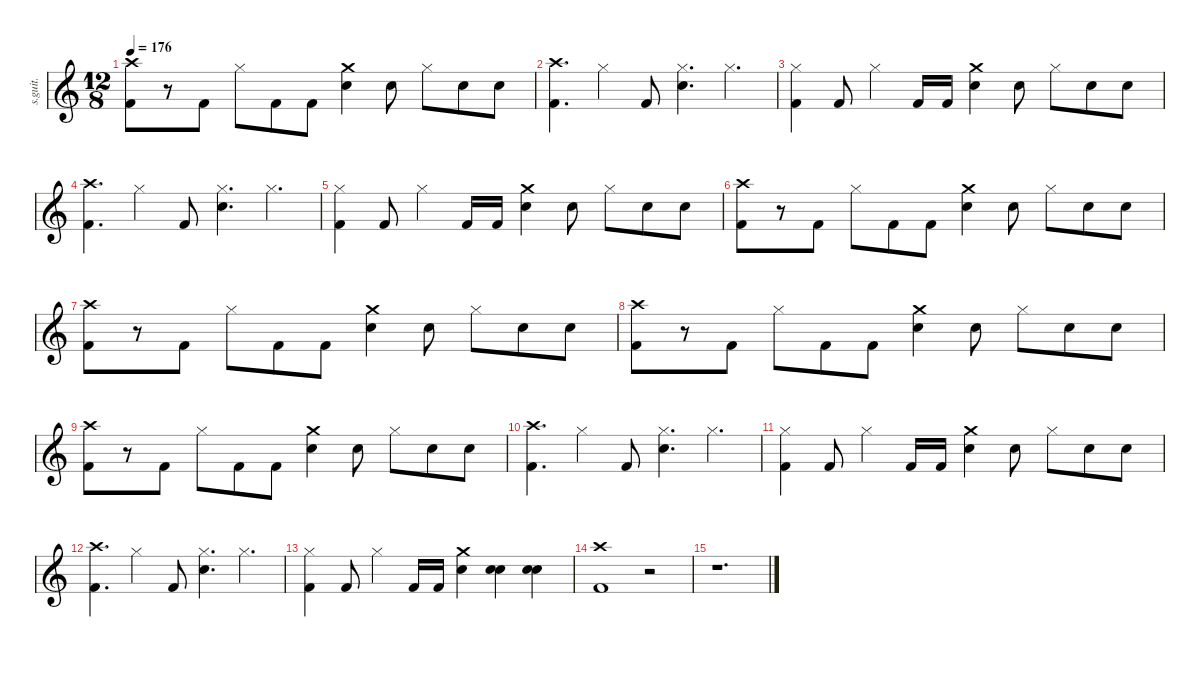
\defaultSystemsLayout 4
\hideDynamics
\bracketExtendMode nobrackets
\track ("Vinnie Paul" "s.guit.") {instrument percussion}
\staff {score}
\articulation defaults
\ts (12 8)
\tempo 176
\clef g2
\ks c
("Crash high (hit)" "Kick (hit) 2").8{lyrics (0 "") lyrics (1 "") lyrics (2 "") lyrics (3 "") lyrics (4 "") dy f} r.8 "Kick (hit) 2".8{lyrics (0 "") lyrics (1 "") lyrics (2 "") lyrics (3 "") lyrics (4 "")} "Hi-Hat (closed)".8{lyrics (0 "") lyrics (1 "") lyrics (2 "") lyrics (3 "") lyrics (4 "")} "Kick (hit) 2".8{lyrics (0 "") lyrics (1 "") lyrics (2 "") lyrics (3 "") lyrics (4 "")} "Kick (hit) 2".8{lyrics (0 "") lyrics (1 "") lyrics (2 "") lyrics (3 "") lyrics (4 "")} ("Crash medium (hit)" "Snare (hit) 2").4{lyrics (0 "") lyrics (1 "") lyrics (2 "") lyrics (3 "") lyrics (4 "")} "Snare (hit) 2".8{lyrics (0 "") lyrics (1 "") lyrics (2 "") lyrics (3 "") lyrics (4 "")} "Hi-Hat (closed)".8{lyrics (0 "") lyrics (1 "") lyrics (2 "") lyrics (3 "") lyrics (4 "")} "Snare (hit) 2".8{lyrics (0 "") lyrics (1 "") lyrics (2 "") lyrics (3 "") lyrics (4 "")} "Snare (hit) 2".8{lyrics (0 "") lyrics (1 "") lyrics (2 "") lyrics (3 "") lyrics (4 "")} |
("Crash high (hit)" "Kick (hit) 2").4{d lyrics (0 "") lyrics (1 "") lyrics (2 "") lyrics (3 "") lyrics (4 "")} "Hi-Hat (closed)".4{lyrics (0 "") lyrics (1 "") lyrics (2 "") lyrics (3 "") lyrics (4 "")} "Kick (hit) 2".8{lyrics (0 "") lyrics (1 "") lyrics (2 "") lyrics (3 "") lyrics (4 "")} ("Hi-Hat (closed)" "Snare (hit) 2").4{d lyrics (0 "") lyrics (1 "") lyrics (2 "") lyrics (3 "") lyrics (4 "")} "Hi-Hat (closed)".4{d lyrics (0 "") lyrics (1 "") lyrics (2 "") lyrics (3 "") lyrics (4 "")} |
("Hi-Hat (closed)" "Kick (hit) 2").4{lyrics (0 "") lyrics (1 "") lyrics (2 "") lyrics (3 "") lyrics (4 "")} "Kick (hit) 2".8{lyrics (0 "") lyrics (1 "") lyrics (2 "") lyrics (3 "") lyrics (4 "")} "Hi-Hat (closed)".4{lyrics (0 "") lyrics (1 "") lyrics (2 "") lyrics (3 "") lyrics (4 "")} "Kick (hit) 2".16{lyrics (0 "") lyrics (1 "") lyrics (2 "") lyrics (3 "") lyrics (4 "")} "Kick (hit) 2".16{lyrics (0 "") lyrics (1 "") lyrics (2 "") lyrics (3 "") lyrics (4 "")} ("Crash medium (hit)" "Snare (hit) 2").4{lyrics (0 "") lyrics (1 "") lyrics (2 "") lyrics (3 "") lyrics (4 "")} "Snare (hit) 2".8{lyrics (0 "") lyrics (1 "") lyrics (2 "") lyrics (3 "") lyrics (4 "")} "Hi-Hat (closed)".8{lyrics (0 "") lyrics (1 "") lyrics (2 "") lyrics (3 "") lyrics (4 "")} "Snare (hit) 2".8{lyrics (0 "") lyrics (1 "") lyrics (2 "") lyrics (3 "") lyrics (4 "")} "Snare (hit) 2".8{lyrics (0 "") lyrics (1 "") lyrics (2 "") lyrics (3 "") lyrics (4 "")} |
("Crash high (hit)" "Kick (hit) 2").4{d lyrics (0 "") lyrics (1 "") lyrics (2 "") lyrics (3 "") lyrics (4 "")} "Hi-Hat (closed)".4{lyrics (0 "") lyrics (1 "") lyrics (2 "") lyrics (3 "") lyrics (4 "")} "Kick (hit) 2".8{lyrics (0 "") lyrics (1 "") lyrics (2 "") lyrics (3 "") lyrics (4 "")} ("Hi-Hat (closed)" "Snare (hit) 2").4{d lyrics (0 "") lyrics (1 "") lyrics (2 "") lyrics (3 "") lyrics (4 "")} "Hi-Hat (closed)".4{d lyrics (0 "") lyrics (1 "") lyrics (2 "") lyrics (3 "") lyrics (4 "")} |
("Hi-Hat (closed)" "Kick (hit) 2").4{lyrics (0 "") lyrics (1 "") lyrics (2 "") lyrics (3 "") lyrics (4 "")} "Kick (hit) 2".8{lyrics (0 "") lyrics (1 "") lyrics (2 "") lyrics (3 "") lyrics (4 "")} "Hi-Hat (closed)".4{lyrics (0 "") lyrics (1 "") lyrics (2 "") lyrics (3 "") lyrics (4 "")} "Kick (hit) 2".16{lyrics (0 "") lyrics (1 "") lyrics (2 "") lyrics (3 "") lyrics (4 "")} "Kick (hit) 2".16{lyrics (0 "") lyrics (1 "") lyrics (2 "") lyrics (3 "") lyrics (4 "")} ("Crash medium (hit)" "Snare (hit) 2").4{lyrics (0 "") lyrics (1 "") lyrics (2 "") lyrics (3 "") lyrics (4 "")} "Snare (hit) 2".8{lyrics (0 "") lyrics (1 "") lyrics (2 "") lyrics (3 "") lyrics (4 "")} "Hi-Hat (closed)".8{lyrics (0 "") lyrics (1 "") lyrics (2 "") lyrics (3 "") lyrics (4 "")} "Snare (hit) 2".8{lyrics (0 "") lyrics (1 "") lyrics (2 "") lyrics (3 "") lyrics (4 "")} "Snare (hit) 2".8{lyrics (0 "") lyrics (1 "") lyrics (2 "") lyrics (3 "") lyrics (4 "")} |
("Crash high (hit)" "Kick (hit) 2").8{lyrics (0 "") lyrics (1 "") lyrics (2 "") lyrics (3 "") lyrics (4 "")} r.8 "Kick (hit) 2".8{lyrics (0 "") lyrics (1 "") lyrics (2 "") lyrics (3 "") lyrics (4 "")} "Hi-Hat (closed)".8{lyrics (0 "") lyrics (1 "") lyrics (2 "") lyrics (3 "") lyrics (4 "")} "Kick (hit) 2".8{lyrics (0 "") lyrics (1 "") lyrics (2 "") lyrics (3 "") lyrics (4 "")} "Kick (hit) 2".8{lyrics (0 "") lyrics (1 "") lyrics (2 "") lyrics (3 "") lyrics (4 "")} ("Crash medium (hit)" "Snare (hit) 2").4{lyrics (0 "") lyrics (1 "") lyrics (2 "") lyrics (3 "") lyrics (4 "")} "Snare (hit) 2".8{lyrics (0 "") lyrics (1 "") lyrics (2 "") lyrics (3 "") lyrics (4 "")} "Hi-Hat (closed)".8{lyrics (0 "") lyrics (1 "") lyrics (2 "") lyrics (3 "") lyrics (4 "")} "Snare (hit) 2".8{lyrics (0 "") lyrics (1 "") lyrics (2 "") lyrics (3 "") lyrics (4 "")} "Snare (hit) 2".8{lyrics (0 "") lyrics (1 "") lyrics (2 "") lyrics (3 "") lyrics (4 "")} |
("Crash high (hit)" "Kick (hit) 2").8{lyrics (0 "") lyrics (1 "") lyrics (2 "") lyrics (3 "") lyrics (4 "")} r.8 "Kick (hit) 2".8{lyrics (0 "") lyrics (1 "") lyrics (2 "") lyrics (3 "") lyrics (4 "")} "Hi-Hat (closed)".8{lyrics (0 "") lyrics (1 "") lyrics (2 "") lyrics (3 "") lyrics (4 "")} "Kick (hit) 2".8{lyrics (0 "") lyrics (1 "") lyrics (2 "") lyrics (3 "") lyrics (4 "")} "Kick (hit) 2".8{lyrics (0 "") lyrics (1 "") lyrics (2 "") lyrics (3 "") lyrics (4 "")} ("Crash medium (hit)" "Snare (hit) 2").4{lyrics (0 "") lyrics (1 "") lyrics (2 "") lyrics (3 "") lyrics (4 "")} "Snare (hit) 2".8{lyrics (0 "") lyrics (1 "") lyrics (2 "") lyrics (3 "") lyrics (4 "")} "Hi-Hat (closed)".8{lyrics (0 "") lyrics (1 "") lyrics (2 "") lyrics (3 "") lyrics (4 "")} "Snare (hit) 2".8{lyrics (0 "") lyrics (1 "") lyrics (2 "") lyrics (3 "") lyrics (4 "")} "Snare (hit) 2".8{lyrics (0 "") lyrics (1 "") lyrics (2 "") lyrics (3 "") lyrics (4 "")} |
("Crash high (hit)" "Kick (hit) 2").8{lyrics (0 "") lyrics (1 "") lyrics (2 "") lyrics (3 "") lyrics (4 "")} r.8 "Kick (hit) 2".8{lyrics (0 "") lyrics (1 "") lyrics (2 "") lyrics (3 "") lyrics (4 "")} "Hi-Hat (closed)".8{lyrics (0 "") lyrics (1 "") lyrics (2 "") lyrics (3 "") lyrics (4 "")} "Kick (hit) 2".8{lyrics (0 "") lyrics (1 "") lyrics (2 "") lyrics (3 "") lyrics (4 "")} "Kick (hit) 2".8{lyrics (0 "") lyrics (1 "") lyrics (2 "") lyrics (3 "") lyrics (4 "")} ("Crash medium (hit)" "Snare (hit) 2").4{lyrics (0 "") lyrics (1 "") lyrics (2 "") lyrics (3 "") lyrics (4 "")} "Snare (hit) 2".8{lyrics (0 "") lyrics (1 "") lyrics (2 "") lyrics (3 "") lyrics (4 "")} "Hi-Hat (closed)".8{lyrics (0 "") lyrics (1 "") lyrics (2 "") lyrics (3 "") lyrics (4 "")} "Snare (hit) 2".8{lyrics (0 "") lyrics (1 "") lyrics (2 "") lyrics (3 "") lyrics (4 "")} "Snare (hit) 2".8{lyrics (0 "") lyrics (1 "") lyrics (2 "") lyrics (3 "") lyrics (4 "")} |
("Crash high (hit)" "Kick (hit) 2").8{lyrics (0 "") lyrics (1 "") lyrics (2 "") lyrics (3 "") lyrics (4 "")} r.8 "Kick (hit) 2".8{lyrics (0 "") lyrics (1 "") lyrics (2 "") lyrics (3 "") lyrics (4 "")} "Hi-Hat (closed)".8{lyrics (0 "") lyrics (1 "") lyrics (2 "") lyrics (3 "") lyrics (4 "")} "Kick (hit) 2".8{lyrics (0 "") lyrics (1 "") lyrics (2 "") lyrics (3 "") lyrics (4 "")} "Kick (hit) 2".8{lyrics (0 "") lyrics (1 "") lyrics (2 "") lyrics (3 "") lyrics (4 "")} ("Crash medium (hit)" "Snare (hit) 2").4{lyrics (0 "") lyrics (1 "") lyrics (2 "") lyrics (3 "") lyrics (4 "")} "Snare (hit) 2".8{lyrics (0 "") lyrics (1 "") lyrics (2 "") lyrics (3 "") lyrics (4 "")} "Hi-Hat (closed)".8{lyrics (0 "") lyrics (1 "") lyrics (2 "") lyrics (3 "") lyrics (4 "")} "Snare (hit) 2".8{lyrics (0 "") lyrics (1 "") lyrics (2 "") lyrics (3 "") lyrics (4 "")} "Snare (hit) 2".8{lyrics (0 "") lyrics (1 "") lyrics (2 "") lyrics (3 "") lyrics (4 "")} |
("Crash high (hit)" "Kick (hit) 2").4{d lyrics (0 "") lyrics (1 "") lyrics (2 "") lyrics (3 "") lyrics (4 "")} "Hi-Hat (closed)".4{lyrics (0 "") lyrics (1 "") lyrics (2 "") lyrics (3 "") lyrics (4 "")} "Kick (hit) 2".8{lyrics (0 "") lyrics (1 "") lyrics (2 "") lyrics (3 "") lyrics (4 "")} ("Hi-Hat (closed)" "Snare (hit) 2").4{d lyrics (0 "") lyrics (1 "") lyrics (2 "") lyrics (3 "") lyrics (4 "")} "Hi-Hat (closed)".4{d lyrics (0 "") lyrics (1 "") lyrics (2 "") lyrics (3 "") lyrics (4 "")} |
("Hi-Hat (closed)" "Kick (hit) 2").4{lyrics (0 "") lyrics (1 "") lyrics (2 "") lyrics (3 "") lyrics (4 "")} "Kick (hit) 2".8{lyrics (0 "") lyrics (1 "") lyrics (2 "") lyrics (3 "") lyrics (4 "")} "Hi-Hat (closed)".4{lyrics (0 "") lyrics (1 "") lyrics (2 "") lyrics (3 "") lyrics (4 "")} "Kick (hit) 2".16{lyrics (0 "") lyrics (1 "") lyrics (2 "") lyrics (3 "") lyrics (4 "")} "Kick (hit) 2".16{lyrics (0 "") lyrics (1 "") lyrics (2 "") lyrics (3 "") lyrics (4 "")} ("Crash medium (hit)" "Snare (hit) 2").4{lyrics (0 "") lyrics (1 "") lyrics (2 "") lyrics (3 "") lyrics (4 "")} "Snare (hit) 2".8{lyrics (0 "") lyrics (1 "") lyrics (2 "") lyrics (3 "") lyrics (4 "")} "Hi-Hat (closed)".8{lyrics (0 "") lyrics (1 "") lyrics (2 "") lyrics (3 "") lyrics (4 "")} "Snare (hit) 2".8{lyrics (0 "") lyrics (1 "") lyrics (2 "") lyrics (3 "") lyrics (4 "")} "Snare (hit) 2".8{lyrics (0 "") lyrics (1 "") lyrics (2 "") lyrics (3 "") lyrics (4 "")} |
("Crash high (hit)" "Kick (hit) 2").4{d lyrics (0 "") lyrics (1 "") lyrics (2 "") lyrics (3 "") lyrics (4 "")} "Hi-Hat (closed)".4{lyrics (0 "") lyrics (1 "") lyrics (2 "") lyrics (3 "") lyrics (4 "")} "Kick (hit) 2".8{lyrics (0 "") lyrics (1 "") lyrics (2 "") lyrics (3 "") lyrics (4 "")} ("Hi-Hat (closed)" "Snare (hit) 2").4{d lyrics (0 "") lyrics (1 "") lyrics (2 "") lyrics (3 "") lyrics (4 "")} "Hi-Hat (closed)".4{d lyrics (0 "") lyrics (1 "") lyrics (2 "") lyrics (3 "") lyrics (4 "")} |
("Hi-Hat (closed)" "Kick (hit) 2").4{lyrics (0 "") lyrics (1 "") lyrics (2 "") lyrics (3 "") lyrics (4 "")} "Kick (hit) 2".8{lyrics (0 "") lyrics (1 "") lyrics (2 "") lyrics (3 "") lyrics (4 "")} "Hi-Hat (closed)".4{lyrics (0 "") lyrics (1 "") lyrics (2 "") lyrics (3 "") lyrics (4 "")} "Kick (hit) 2".16{lyrics (0 "") lyrics (1 "") lyrics (2 "") lyrics (3 "") lyrics (4 "")} "Kick (hit) 2".16{lyrics (0 "") lyrics (1 "") lyrics (2 "") lyrics (3 "") lyrics (4 "")} ("Crash medium (hit)" "Snare (hit) 2").4{lyrics (0 "") lyrics (1 "") lyrics (2 "") lyrics (3 "") lyrics (4 "")} ("Snare (hit) 2" "Snare (hit) 2").4{lyrics (0 "") lyrics (1 "") lyrics (2 "") lyrics (3 "") lyrics (4 "")} ("Snare (hit) 2" "Snare (hit) 2").4{lyrics (0 "") lyrics (1 "") lyrics (2 "") lyrics (3 "") lyrics (4 "")} |
("Crash high (hit)" "Kick (hit) 2").1{lyrics (0 "") lyrics (1 "") lyrics (2 "") lyrics (3 "") lyrics (4 "")} r.2 |
r.1{d}
